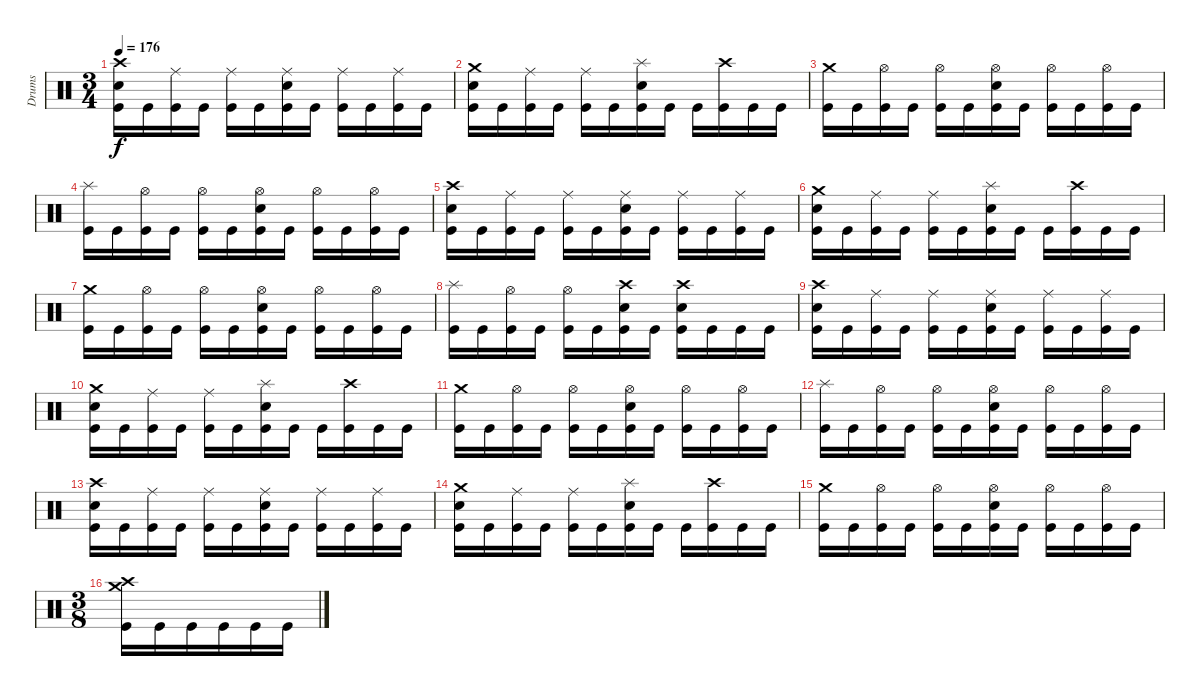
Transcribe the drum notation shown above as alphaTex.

\track ("Drums" "Drums") {instrument percussion}
\staff {score}
\articulation defaults
\ts (3 4)
\tempo 176
\clef neutral
\ks c
("Crash high (hit)" "Electric Snare (hit)" "Kick (hit)").16{dy f} "Kick (hit)".16 ("Ride (middle)" "Kick (hit)").16 "Kick (hit)".16 ("Ride (middle)" "Kick (hit)").16 "Kick (hit)".16 ("Ride (middle)" "Electric Snare (hit)" "Kick (hit)").16 "Kick (hit)".16 ("Ride (middle)" "Kick (hit)").16 "Kick (hit)".16 ("Ride (middle)" "Kick (hit)").16 "Kick (hit)".16 |
("Crash medium (hit)" "Electric Snare (hit)" "Kick (hit)").16 "Kick (hit)".16 ("Ride (middle)" "Kick (hit)").16 "Kick (hit)".16 ("Ride (middle)" "Kick (hit)").16 "Kick (hit)".16 ("Splash (hit)" "Electric Snare (hit)" "Kick (hit)").16 "Kick (hit)".16 "Kick (hit)".16 ("Crash high (hit)" "Kick (hit)").16 "Kick (hit)".16 "Kick (hit)".16 |
("Crash medium (hit)" "Kick (hit)").16 "Kick (hit)".16 ("Hi-Hat (open)" "Kick (hit)").16 "Kick (hit)".16 ("Hi-Hat (open)" "Kick (hit)").16 "Kick (hit)".16 ("Hi-Hat (open)" "Electric Snare (hit)" "Kick (hit)").16 "Kick (hit)".16 ("Hi-Hat (open)" "Kick (hit)").16 "Kick (hit)".16 ("Hi-Hat (open)" "Kick (hit)").16 "Kick (hit)".16 |
("Splash (hit)" "Kick (hit)").16 "Kick (hit)".16 ("Hi-Hat (open)" "Kick (hit)").16 "Kick (hit)".16 ("Hi-Hat (open)" "Kick (hit)").16 "Kick (hit)".16 ("Hi-Hat (open)" "Electric Snare (hit)" "Kick (hit)").16 "Kick (hit)".16 ("Hi-Hat (open)" "Kick (hit)").16 "Kick (hit)".16 ("Hi-Hat (open)" "Kick (hit)").16 "Kick (hit)".16 |
("Crash high (hit)" "Electric Snare (hit)" "Kick (hit)").16 "Kick (hit)".16 ("Ride (middle)" "Kick (hit)").16 "Kick (hit)".16 ("Ride (middle)" "Kick (hit)").16 "Kick (hit)".16 ("Ride (middle)" "Electric Snare (hit)" "Kick (hit)").16 "Kick (hit)".16 ("Ride (middle)" "Kick (hit)").16 "Kick (hit)".16 ("Ride (middle)" "Kick (hit)").16 "Kick (hit)".16 |
("Crash medium (hit)" "Electric Snare (hit)" "Kick (hit)").16 "Kick (hit)".16 ("Ride (middle)" "Kick (hit)").16 "Kick (hit)".16 ("Ride (middle)" "Kick (hit)").16 "Kick (hit)".16 ("Splash (hit)" "Electric Snare (hit)" "Kick (hit)").16 "Kick (hit)".16 "Kick (hit)".16 ("Crash high (hit)" "Kick (hit)").16 "Kick (hit)".16 "Kick (hit)".16 |
("Crash medium (hit)" "Kick (hit)").16 "Kick (hit)".16 ("Hi-Hat (open)" "Kick (hit)").16 "Kick (hit)".16 ("Hi-Hat (open)" "Kick (hit)").16 "Kick (hit)".16 ("Hi-Hat (open)" "Electric Snare (hit)" "Kick (hit)").16 "Kick (hit)".16 ("Hi-Hat (open)" "Kick (hit)").16 "Kick (hit)".16 ("Hi-Hat (open)" "Kick (hit)").16 "Kick (hit)".16 |
("Splash (hit)" "Kick (hit)").16 "Kick (hit)".16 ("Hi-Hat (open)" "Kick (hit)").16 "Kick (hit)".16 ("Hi-Hat (open)" "Kick (hit)").16 "Kick (hit)".16 ("Crash high (hit)" "Electric Snare (hit)" "Kick (hit)").16 "Kick (hit)".16 ("Crash high (hit)" "Electric Snare (hit)" "Kick (hit)").16 "Kick (hit)".16 "Kick (hit)".16 "Kick (hit)".16 |
("Crash high (hit)" "Electric Snare (hit)" "Kick (hit)").16 "Kick (hit)".16 ("Ride (middle)" "Kick (hit)").16 "Kick (hit)".16 ("Ride (middle)" "Kick (hit)").16 "Kick (hit)".16 ("Ride (middle)" "Electric Snare (hit)" "Kick (hit)").16 "Kick (hit)".16 ("Ride (middle)" "Kick (hit)").16 "Kick (hit)".16 ("Ride (middle)" "Kick (hit)").16 "Kick (hit)".16 |
("Crash medium (hit)" "Electric Snare (hit)" "Kick (hit)").16 "Kick (hit)".16 ("Ride (middle)" "Kick (hit)").16 "Kick (hit)".16 ("Ride (middle)" "Kick (hit)").16 "Kick (hit)".16 ("Splash (hit)" "Electric Snare (hit)" "Kick (hit)").16 "Kick (hit)".16 "Kick (hit)".16 ("Crash high (hit)" "Kick (hit)").16 "Kick (hit)".16 "Kick (hit)".16 |
("Crash medium (hit)" "Kick (hit)").16 "Kick (hit)".16 ("Hi-Hat (open)" "Kick (hit)").16 "Kick (hit)".16 ("Hi-Hat (open)" "Kick (hit)").16 "Kick (hit)".16 ("Hi-Hat (open)" "Electric Snare (hit)" "Kick (hit)").16 "Kick (hit)".16 ("Hi-Hat (open)" "Kick (hit)").16 "Kick (hit)".16 ("Hi-Hat (open)" "Kick (hit)").16 "Kick (hit)".16 |
("Splash (hit)" "Kick (hit)").16 "Kick (hit)".16 ("Hi-Hat (open)" "Kick (hit)").16 "Kick (hit)".16 ("Hi-Hat (open)" "Kick (hit)").16 "Kick (hit)".16 ("Hi-Hat (open)" "Electric Snare (hit)" "Kick (hit)").16 "Kick (hit)".16 ("Hi-Hat (open)" "Kick (hit)").16 "Kick (hit)".16 ("Hi-Hat (open)" "Kick (hit)").16 "Kick (hit)".16 |
("Crash high (hit)" "Electric Snare (hit)" "Kick (hit)").16 "Kick (hit)".16 ("Ride (middle)" "Kick (hit)").16 "Kick (hit)".16 ("Ride (middle)" "Kick (hit)").16 "Kick (hit)".16 ("Ride (middle)" "Electric Snare (hit)" "Kick (hit)").16 "Kick (hit)".16 ("Ride (middle)" "Kick (hit)").16 "Kick (hit)".16 ("Ride (middle)" "Kick (hit)").16 "Kick (hit)".16 |
("Crash medium (hit)" "Electric Snare (hit)" "Kick (hit)").16 "Kick (hit)".16 ("Ride (middle)" "Kick (hit)").16 "Kick (hit)".16 ("Ride (middle)" "Kick (hit)").16 "Kick (hit)".16 ("Splash (hit)" "Electric Snare (hit)" "Kick (hit)").16 "Kick (hit)".16 "Kick (hit)".16 ("Crash high (hit)" "Kick (hit)").16 "Kick (hit)".16 "Kick (hit)".16 |
("Crash medium (hit)" "Kick (hit)").16 "Kick (hit)".16 ("Hi-Hat (open)" "Kick (hit)").16 "Kick (hit)".16 ("Hi-Hat (open)" "Kick (hit)").16 "Kick (hit)".16 ("Hi-Hat (open)" "Electric Snare (hit)" "Kick (hit)").16 "Kick (hit)".16 ("Hi-Hat (open)" "Kick (hit)").16 "Kick (hit)".16 ("Hi-Hat (open)" "Kick (hit)").16 "Kick (hit)".16 |
\ts (3 8)
("Crash high (hit)" "Crash medium (hit)" "Kick (hit)").16 "Kick (hit)".16 "Kick (hit)".16 "Kick (hit)".16 "Kick (hit)".16 "Kick (hit)".16
